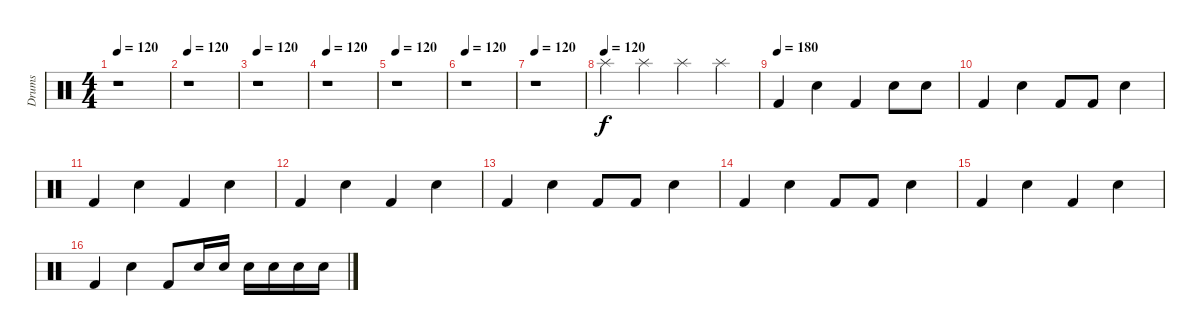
\track ("Drums" "Drums") {instrument percussion}
\staff {score}
\articulation defaults
\ts (4 4)
\tempo 120
\clef neutral
\ks c
r.1{dy f} |
\tempo 120
r.1 |
\tempo 120
r.1 |
\tempo 120
r.1 |
\tempo 120
r.1 |
\tempo 120
r.1 |
\tempo 120
r.1 |
\tempo (120)
"Splash (hit)".4 "Splash (hit)".4 "Splash (hit)".4 "Splash (hit)".4 |
\tempo (180)
"Kick (hit) 2".4 "Snare (hit) 2".4 "Kick (hit) 2".4 "Snare (hit) 2".8 "Snare (hit) 2".8 |
"Kick (hit) 2".4 "Snare (hit) 2".4 "Kick (hit) 2".8 "Kick (hit) 2".8 "Snare (hit) 2".4 |
"Kick (hit) 2".4 "Snare (hit) 2".4 "Kick (hit) 2".4 "Snare (hit) 2".4 |
"Kick (hit) 2".4 "Snare (hit) 2".4 "Kick (hit) 2".4 "Snare (hit) 2".4 |
"Kick (hit) 2".4 "Snare (hit) 2".4 "Kick (hit) 2".8 "Kick (hit) 2".8 "Snare (hit) 2".4 |
"Kick (hit) 2".4 "Snare (hit) 2".4 "Kick (hit) 2".8 "Kick (hit) 2".8 "Snare (hit) 2".4 |
"Kick (hit) 2".4 "Snare (hit) 2".4 "Kick (hit) 2".4 "Snare (hit) 2".4 |
"Kick (hit) 2".4 "Snare (hit) 2".4 "Kick (hit) 2".8 "Metronome (bell)".16 "Metronome (bell)".16 "Metronome (bell)".16 "Metronome (bell)".16 "Metronome (bell)".16 "Metronome (bell)".16
